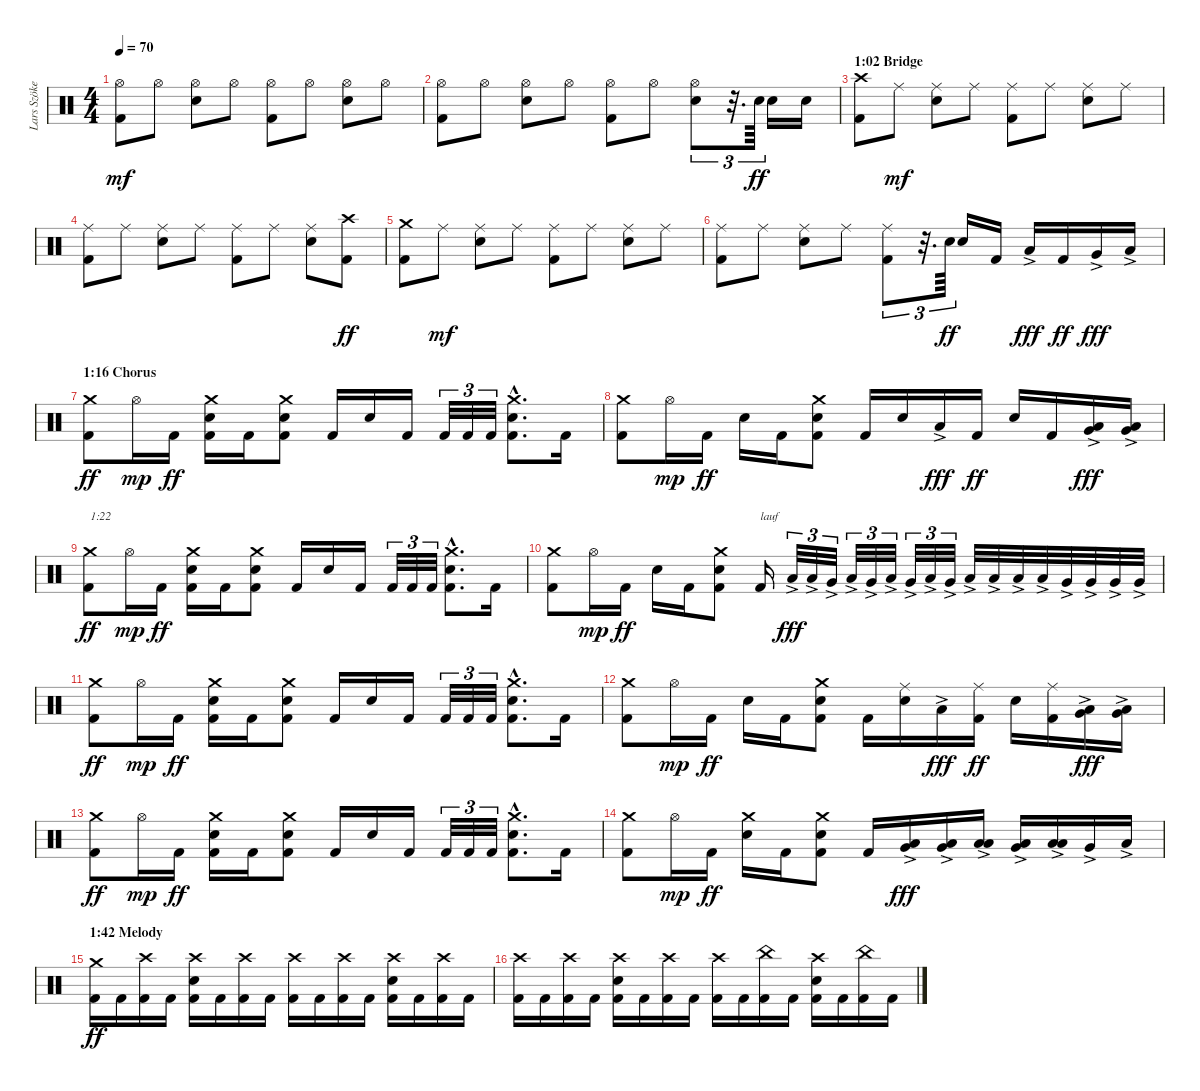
\track ("Lars Szöke (Drums)" "Lars Szöke") {instrument percussion}
\staff {score}
\articulation defaults
\ts (4 4)
\tempo 70
\clef neutral
\ks c
("Kick (hit) 2" "Hi-Hat (open)").8{dy mf} "Hi-Hat (open)".8 ("Electric Snare (hit)" "Hi-Hat (open)").8 "Hi-Hat (open)".8 ("Kick (hit) 2" "Hi-Hat (open)").8 "Hi-Hat (open)".8 ("Electric Snare (hit)" "Hi-Hat (open)").8 "Hi-Hat (open)".8 |
("Kick (hit) 2" "Hi-Hat (open)").8 "Hi-Hat (open)".8 ("Electric Snare (hit)" "Hi-Hat (open)").8 "Hi-Hat (open)".8 ("Kick (hit) 2" "Hi-Hat (open)").8 "Hi-Hat (open)".8 ("Electric Snare (hit)" "Hi-Hat (open)").8{tu (3 2)} r.32{d tu (3 2)} "Electric Snare (hit)".64{tu (3 2) dy ff} "Electric Snare (hit)".16 "Electric Snare (hit)".16 |
\section ("" "1:02 Bridge")
("Kick (hit) 2" "Crash high (hit)").8 "Ride (middle)".8{dy mf} ("Electric Snare (hit)" "Ride (middle)").8 "Ride (middle)".8 ("Kick (hit) 2" "Ride (middle)").8 "Ride (middle)".8 ("Electric Snare (hit)" "Ride (middle)").8 "Ride (middle)".8 |
("Kick (hit) 2" "Ride (middle)").8 "Ride (middle)".8 ("Electric Snare (hit)" "Ride (middle)").8 "Ride (middle)".8 ("Kick (hit) 2" "Ride (middle)").8 "Ride (middle)".8 ("Electric Snare (hit)" "Ride (middle)").8 ("Kick (hit) 2" "Crash high (hit)").8{dy ff} |
("Kick (hit) 2" "Crash medium (hit)").8 "Ride (middle)".8{dy mf} ("Electric Snare (hit)" "Ride (middle)").8 "Ride (middle)".8 ("Kick (hit) 2" "Ride (middle)").8 "Ride (middle)".8 ("Electric Snare (hit)" "Ride (middle)").8 "Ride (middle)".8 |
("Kick (hit) 2" "Ride (middle)").8 "Ride (middle)".8 ("Electric Snare (hit)" "Ride (middle)").8 "Ride (middle)".8 ("Kick (hit) 2" "Ride (middle)").8{tu (3 2)} r.32{d tu (3 2)} "Electric Snare (hit)".64{tu (3 2) dy ff} "Electric Snare (hit)".16 "Kick (hit) 2".16 "Low Tom (hit)"{ac}.16{dy fff} "Kick (hit) 2".16{dy ff} "Very Low Tom (hit)"{ac}.16{dy fff} "Low Floor Tom (hit)"{ac}.16 |
\section ("" "1:16 Chorus")
("Kick (hit) 2" "Crash medium (hit)").8{dy ff} "Hi-Hat (open)".16{dy mp} "Kick (hit) 2".16{dy ff} ("Kick (hit) 2" "Electric Snare (hit)" "Crash medium (hit)").16 "Kick (hit) 2".16 ("Kick (hit) 2" "Electric Snare (hit)" "Crash medium (hit)").8 "Kick (hit) 2".16 "Electric Snare (hit)".16 "Kick (hit) 2".16 "Kick (hit) 2".32{tu (3 2)} "Kick (hit) 2".32{tu (3 2)} "Kick (hit) 2".32{tu (3 2)} ("Kick (hit) 2"{hac} "Electric Snare (hit)"{hac} "Crash medium (hit)"{hac}).8{d} "Kick (hit) 2".16 |
("Kick (hit) 2" "Crash medium (hit)").8 "Hi-Hat (open)".16{dy mp} "Kick (hit) 2".16{dy ff} "Electric Snare (hit)".16 "Kick (hit) 2".16 ("Kick (hit) 2" "Electric Snare (hit)" "Crash medium (hit)").8 "Kick (hit) 2".16 "Electric Snare (hit)".16 "Low Tom (hit)"{ac}.16{dy fff} "Kick (hit) 2".16{dy ff} "Electric Snare (hit)".16 "Kick (hit) 2".16 ("Low Tom (hit)"{ac} "Very Low Tom (hit)"{ac}).16{dy fff} ("Very Low Tom (hit)"{ac} "Low Floor Tom (hit)"{ac}).16 |
("Kick (hit) 2" "Crash medium (hit)").8{txt "1:22" dy ff} "Hi-Hat (open)".16{dy mp} "Kick (hit) 2".16{dy ff} ("Kick (hit) 2" "Electric Snare (hit)" "Crash medium (hit)").16 "Kick (hit) 2".16 ("Kick (hit) 2" "Electric Snare (hit)" "Crash medium (hit)").8 "Kick (hit) 2".16 "Electric Snare (hit)".16 "Kick (hit) 2".16 "Kick (hit) 2".32{tu (3 2)} "Kick (hit) 2".32{tu (3 2)} "Kick (hit) 2".32{tu (3 2)} ("Kick (hit) 2"{hac} "Electric Snare (hit)"{hac} "Crash medium (hit)"{hac}).8{d} "Kick (hit) 2".16 |
("Kick (hit) 2" "Crash medium (hit)").8 "Hi-Hat (open)".16{dy mp} "Kick (hit) 2".16{dy ff} "Electric Snare (hit)".16 "Kick (hit) 2".16 ("Kick (hit) 2" "Electric Snare (hit)" "Crash medium (hit)").8 "Kick (hit) 2".16{txt "lauf"} "Low Tom (hit)"{ac}.32{tu (3 2) dy fff} "Low Tom (hit)"{ac}.32{tu (3 2)} "Very Low Tom (hit)"{ac}.32{tu (3 2)} "Low Tom (hit)"{ac}.32{tu (3 2)} "Very Low Tom (hit)"{ac}.32{tu (3 2)} "Low Floor Tom (hit)"{ac}.32{tu (3 2)} "Very Low Tom (hit)"{ac}.32{tu (3 2)} "Low Floor Tom (hit)"{ac}.32{tu (3 2)} "Very Low Tom (hit)"{ac}.32{tu (3 2)} "Low Tom (hit)"{ac}.32 "Low Tom (hit)"{ac}.32 "Low Tom (hit)"{ac}.32 "Low Tom (hit)"{ac}.32 "Very Low Tom (hit)"{ac}.32 "Very Low Tom (hit)"{ac}.32 "Very Low Tom (hit)"{ac}.32 "Very Low Tom (hit)"{ac}.32 |
("Kick (hit) 2" "Crash medium (hit)").8{dy ff} "Hi-Hat (open)".16{dy mp} "Kick (hit) 2".16{dy ff} ("Kick (hit) 2" "Electric Snare (hit)" "Crash medium (hit)").16 "Kick (hit) 2".16 ("Kick (hit) 2" "Electric Snare (hit)" "Crash medium (hit)").8 "Kick (hit) 2".16 "Electric Snare (hit)".16 "Kick (hit) 2".16 "Kick (hit) 2".32{tu (3 2)} "Kick (hit) 2".32{tu (3 2)} "Kick (hit) 2".32{tu (3 2)} ("Kick (hit) 2"{hac} "Electric Snare (hit)"{hac} "Crash medium (hit)"{hac}).8{d} "Kick (hit) 2".16 |
("Kick (hit) 2" "Crash medium (hit)").8 "Hi-Hat (open)".16{dy mp} "Kick (hit) 2".16{dy ff} "Electric Snare (hit)".16 "Kick (hit) 2".16 ("Kick (hit) 2" "Electric Snare (hit)" "Crash medium (hit)").8 "Kick (hit) 2".16 ("Electric Snare (hit)" "Ride (middle)").16 "Low Tom (hit)"{ac}.16{dy fff} ("Kick (hit) 2" "Ride (middle)").16{dy ff} "Electric Snare (hit)".16 ("Kick (hit) 2" "Ride (middle)").16 ("Low Tom (hit)"{ac} "Very Low Tom (hit)"{ac}).16{dy fff} ("Very Low Tom (hit)"{ac} "Low Floor Tom (hit)"{ac}).16 |
("Kick (hit) 2" "Crash medium (hit)").8{dy ff} "Hi-Hat (open)".16{dy mp} "Kick (hit) 2".16{dy ff} ("Kick (hit) 2" "Electric Snare (hit)" "Crash medium (hit)").16 "Kick (hit) 2".16 ("Kick (hit) 2" "Electric Snare (hit)" "Crash medium (hit)").8 "Kick (hit) 2".16 "Electric Snare (hit)".16 "Kick (hit) 2".16 "Kick (hit) 2".32{tu (3 2)} "Kick (hit) 2".32{tu (3 2)} "Kick (hit) 2".32{tu (3 2)} ("Kick (hit) 2"{hac} "Electric Snare (hit)"{hac} "Crash medium (hit)"{hac}).8{d} "Kick (hit) 2".16 |
("Kick (hit) 2" "Crash medium (hit)").8 "Hi-Hat (open)".16{dy mp} "Kick (hit) 2".16{dy ff} ("Electric Snare (hit)" "Crash medium (hit)").16 "Kick (hit) 2".16 ("Kick (hit) 2" "Electric Snare (hit)" "Crash medium (hit)").8 "Kick (hit) 2".16 ("Low Tom (hit)"{ac} "Very Low Tom (hit)"{ac}).16{dy fff} ("Low Tom (hit)"{ac} "Very Low Tom (hit)"{ac}).16 ("Low Tom (hit)"{ac} "Low Floor Tom (hit)"{ac}).16 ("Low Tom (hit)"{ac} "Very Low Tom (hit)"{ac}).16 ("Low Tom (hit)"{ac} "Low Floor Tom (hit)"{ac}).16 "Very Low Tom (hit)"{ac}.16 "Low Floor Tom (hit)"{ac}.16 |
\section ("" "1:42 Melody")
("Kick (hit) 2" "Crash medium (hit)").16{dy ff} "Kick (hit) 2".16 ("Kick (hit) 2" "Crash high (hit)").16 "Kick (hit) 2".16 ("Kick (hit) 2" "Electric Snare (hit)" "Crash high (hit)").16 "Kick (hit) 2".16 ("Kick (hit) 2" "Crash high (hit)").16 "Kick (hit) 2".16 ("Kick (hit) 2" "Crash high (hit)").16 "Kick (hit) 2".16 ("Kick (hit) 2" "Crash high (hit)").16 "Kick (hit) 2".16 ("Kick (hit) 2" "Electric Snare (hit)" "Crash high (hit)").16 "Kick (hit) 2".16 ("Kick (hit) 2" "Crash high (hit)").16 "Kick (hit) 2".16 |
("Kick (hit) 2" "Crash high (hit)").16 "Kick (hit) 2".16 ("Kick (hit) 2" "Crash high (hit)").16 "Kick (hit) 2".16 ("Kick (hit) 2" "Electric Snare (hit)" "Crash high (hit)").16 "Kick (hit) 2".16 ("Kick (hit) 2" "Crash high (hit)").16 "Kick (hit) 2".16 ("Kick (hit) 2" "Crash high (hit)").16 "Kick (hit) 2".16 ("Kick (hit) 2" "China (hit)").16 "Kick (hit) 2".16 ("Kick (hit) 2" "Electric Snare (hit)" "Crash high (hit)").16 "Kick (hit) 2".16 ("Kick (hit) 2" "China (hit)").16 "Kick (hit) 2".16
